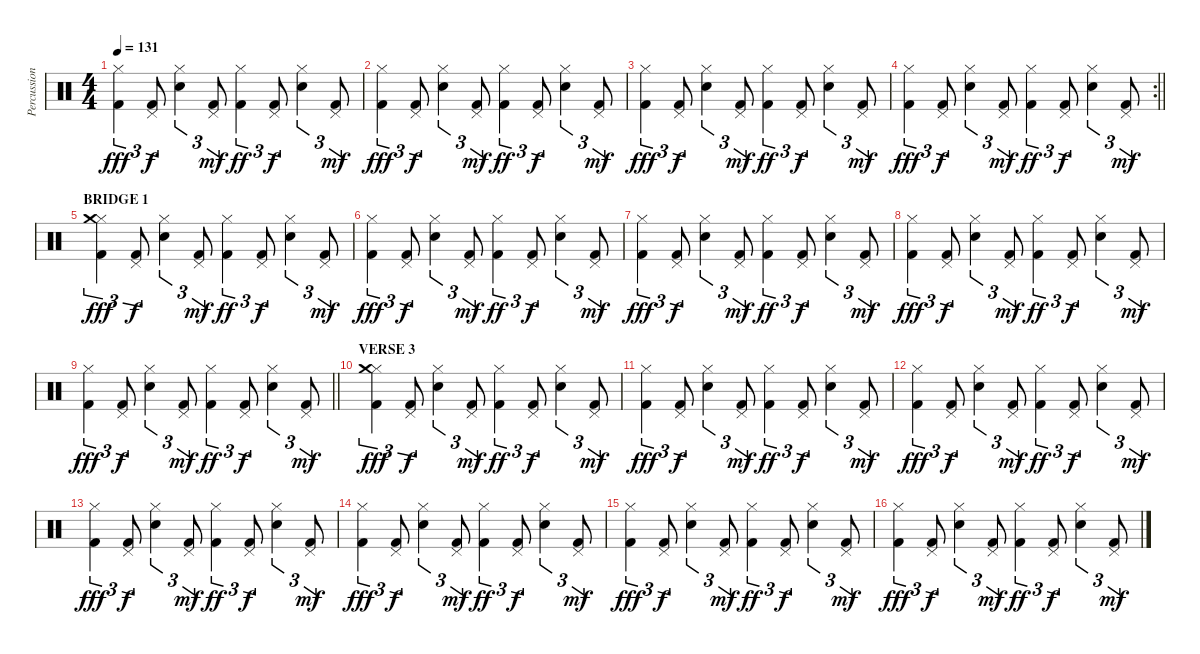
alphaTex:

\track ("Percussion" "Percussion") {instrument percussion}
\staff {score}
\articulation defaults
\ts (4 4)
\tempo 131
\clef neutral
\ks c
("Hi-Hat (closed)" "Kick (hit) 2").4{tu (3 2) dy fff} ("Pedal Hi-Hat (hit)" "Kick (hit) 2").8{tu (3 2) dy f} ("Hi-Hat (closed)" "Electric Snare (hit)").4{tu (3 2)} ("Pedal Hi-Hat (hit)" "Kick (hit) 2").8{tu (3 2) dy mf} ("Hi-Hat (closed)" "Kick (hit) 2").4{tu (3 2) dy ff} ("Pedal Hi-Hat (hit)" "Kick (hit) 2").8{tu (3 2) dy f} ("Hi-Hat (closed)" "Electric Snare (hit)").4{tu (3 2)} ("Pedal Hi-Hat (hit)" "Kick (hit) 2").8{tu (3 2) dy mf} |
("Hi-Hat (closed)" "Kick (hit) 2").4{tu (3 2) dy fff} ("Pedal Hi-Hat (hit)" "Kick (hit) 2").8{tu (3 2) dy f} ("Hi-Hat (closed)" "Electric Snare (hit)").4{tu (3 2)} ("Pedal Hi-Hat (hit)" "Kick (hit) 2").8{tu (3 2) dy mf} ("Hi-Hat (closed)" "Kick (hit) 2").4{tu (3 2) dy ff} ("Pedal Hi-Hat (hit)" "Kick (hit) 2").8{tu (3 2) dy f} ("Hi-Hat (closed)" "Electric Snare (hit)").4{tu (3 2)} ("Pedal Hi-Hat (hit)" "Kick (hit) 2").8{tu (3 2) dy mf} |
("Hi-Hat (closed)" "Kick (hit) 2").4{tu (3 2) dy fff} ("Pedal Hi-Hat (hit)" "Kick (hit) 2").8{tu (3 2) dy f} ("Hi-Hat (closed)" "Electric Snare (hit)").4{tu (3 2)} ("Pedal Hi-Hat (hit)" "Kick (hit) 2").8{tu (3 2) dy mf} ("Hi-Hat (closed)" "Kick (hit) 2").4{tu (3 2) dy ff} ("Pedal Hi-Hat (hit)" "Kick (hit) 2").8{tu (3 2) dy f} ("Hi-Hat (closed)" "Electric Snare (hit)").4{tu (3 2)} ("Pedal Hi-Hat (hit)" "Kick (hit) 2").8{tu (3 2) dy mf} |
\rc 2
\barLineRight lightlight
("Hi-Hat (closed)" "Kick (hit) 2").4{tu (3 2) dy fff} ("Pedal Hi-Hat (hit)" "Kick (hit) 2").8{tu (3 2) dy f} ("Hi-Hat (closed)" "Electric Snare (hit)").4{tu (3 2)} ("Pedal Hi-Hat (hit)" "Kick (hit) 2").8{tu (3 2) dy mf} ("Hi-Hat (closed)" "Kick (hit) 2").4{tu (3 2) dy ff} ("Pedal Hi-Hat (hit)" "Kick (hit) 2").8{tu (3 2) dy f} ("Hi-Hat (closed)" "Electric Snare (hit)").4{tu (3 2)} ("Pedal Hi-Hat (hit)" "Kick (hit) 2").8{tu (3 2) dy mf} |
\section ("" "BRIDGE 1")
("Hi-Hat (closed)" "Crash medium (hit)" "Kick (hit) 2").4{tu (3 2) dy fff} ("Pedal Hi-Hat (hit)" "Kick (hit) 2").8{tu (3 2) dy f} ("Hi-Hat (closed)" "Electric Snare (hit)").4{tu (3 2)} ("Pedal Hi-Hat (hit)" "Kick (hit) 2").8{tu (3 2) dy mf} ("Hi-Hat (closed)" "Kick (hit) 2").4{tu (3 2) dy ff} ("Pedal Hi-Hat (hit)" "Kick (hit) 2").8{tu (3 2) dy f} ("Hi-Hat (closed)" "Electric Snare (hit)").4{tu (3 2)} ("Pedal Hi-Hat (hit)" "Kick (hit) 2").8{tu (3 2) dy mf} |
("Hi-Hat (closed)" "Kick (hit) 2").4{tu (3 2) dy fff} ("Pedal Hi-Hat (hit)" "Kick (hit) 2").8{tu (3 2) dy f} ("Hi-Hat (closed)" "Electric Snare (hit)").4{tu (3 2)} ("Pedal Hi-Hat (hit)" "Kick (hit) 2").8{tu (3 2) dy mf} ("Hi-Hat (closed)" "Kick (hit) 2").4{tu (3 2) dy ff} ("Pedal Hi-Hat (hit)" "Kick (hit) 2").8{tu (3 2) dy f} ("Hi-Hat (closed)" "Electric Snare (hit)").4{tu (3 2)} ("Pedal Hi-Hat (hit)" "Kick (hit) 2").8{tu (3 2) dy mf} |
("Hi-Hat (closed)" "Kick (hit) 2").4{tu (3 2) dy fff} ("Pedal Hi-Hat (hit)" "Kick (hit) 2").8{tu (3 2) dy f} ("Hi-Hat (closed)" "Electric Snare (hit)").4{tu (3 2)} ("Pedal Hi-Hat (hit)" "Kick (hit) 2").8{tu (3 2) dy mf} ("Hi-Hat (closed)" "Kick (hit) 2").4{tu (3 2) dy ff} ("Pedal Hi-Hat (hit)" "Kick (hit) 2").8{tu (3 2) dy f} ("Hi-Hat (closed)" "Electric Snare (hit)").4{tu (3 2)} ("Pedal Hi-Hat (hit)" "Kick (hit) 2").8{tu (3 2) dy mf} |
("Hi-Hat (closed)" "Kick (hit) 2").4{tu (3 2) dy fff} ("Pedal Hi-Hat (hit)" "Kick (hit) 2").8{tu (3 2) dy f} ("Hi-Hat (closed)" "Electric Snare (hit)").4{tu (3 2)} ("Pedal Hi-Hat (hit)" "Kick (hit) 2").8{tu (3 2) dy mf} ("Hi-Hat (closed)" "Kick (hit) 2").4{tu (3 2) dy ff} ("Pedal Hi-Hat (hit)" "Kick (hit) 2").8{tu (3 2) dy f} ("Hi-Hat (closed)" "Electric Snare (hit)").4{tu (3 2)} ("Pedal Hi-Hat (hit)" "Kick (hit) 2").8{tu (3 2) dy mf} |
\barLineRight lightlight
("Hi-Hat (closed)" "Kick (hit) 2").4{tu (3 2) dy fff} ("Pedal Hi-Hat (hit)" "Kick (hit) 2").8{tu (3 2) dy f} ("Hi-Hat (closed)" "Electric Snare (hit)").4{tu (3 2)} ("Pedal Hi-Hat (hit)" "Kick (hit) 2").8{tu (3 2) dy mf} ("Hi-Hat (closed)" "Kick (hit) 2").4{tu (3 2) dy ff} ("Pedal Hi-Hat (hit)" "Kick (hit) 2").8{tu (3 2) dy f} ("Hi-Hat (closed)" "Electric Snare (hit)").4{tu (3 2)} ("Pedal Hi-Hat (hit)" "Kick (hit) 2").8{tu (3 2) dy mf} |
\section ("" "VERSE 3")
("Hi-Hat (closed)" "Crash medium (hit)" "Kick (hit) 2").4{tu (3 2) dy fff} ("Pedal Hi-Hat (hit)" "Kick (hit) 2").8{tu (3 2) dy f} ("Hi-Hat (closed)" "Electric Snare (hit)").4{tu (3 2)} ("Pedal Hi-Hat (hit)" "Kick (hit) 2").8{tu (3 2) dy mf} ("Hi-Hat (closed)" "Kick (hit) 2").4{tu (3 2) dy ff} ("Pedal Hi-Hat (hit)" "Kick (hit) 2").8{tu (3 2) dy f} ("Hi-Hat (closed)" "Electric Snare (hit)").4{tu (3 2)} ("Pedal Hi-Hat (hit)" "Kick (hit) 2").8{tu (3 2) dy mf} |
("Hi-Hat (closed)" "Kick (hit) 2").4{tu (3 2) dy fff} ("Pedal Hi-Hat (hit)" "Kick (hit) 2").8{tu (3 2) dy f} ("Hi-Hat (closed)" "Electric Snare (hit)").4{tu (3 2)} ("Pedal Hi-Hat (hit)" "Kick (hit) 2").8{tu (3 2) dy mf} ("Hi-Hat (closed)" "Kick (hit) 2").4{tu (3 2) dy ff} ("Pedal Hi-Hat (hit)" "Kick (hit) 2").8{tu (3 2) dy f} ("Hi-Hat (closed)" "Electric Snare (hit)").4{tu (3 2)} ("Pedal Hi-Hat (hit)" "Kick (hit) 2").8{tu (3 2) dy mf} |
("Hi-Hat (closed)" "Kick (hit) 2").4{tu (3 2) dy fff} ("Pedal Hi-Hat (hit)" "Kick (hit) 2").8{tu (3 2) dy f} ("Hi-Hat (closed)" "Electric Snare (hit)").4{tu (3 2)} ("Pedal Hi-Hat (hit)" "Kick (hit) 2").8{tu (3 2) dy mf} ("Hi-Hat (closed)" "Kick (hit) 2").4{tu (3 2) dy ff} ("Pedal Hi-Hat (hit)" "Kick (hit) 2").8{tu (3 2) dy f} ("Hi-Hat (closed)" "Electric Snare (hit)").4{tu (3 2)} ("Pedal Hi-Hat (hit)" "Kick (hit) 2").8{tu (3 2) dy mf} |
("Hi-Hat (closed)" "Kick (hit) 2").4{tu (3 2) dy fff} ("Pedal Hi-Hat (hit)" "Kick (hit) 2").8{tu (3 2) dy f} ("Hi-Hat (closed)" "Electric Snare (hit)").4{tu (3 2)} ("Pedal Hi-Hat (hit)" "Kick (hit) 2").8{tu (3 2) dy mf} ("Hi-Hat (closed)" "Kick (hit) 2").4{tu (3 2) dy ff} ("Pedal Hi-Hat (hit)" "Kick (hit) 2").8{tu (3 2) dy f} ("Hi-Hat (closed)" "Electric Snare (hit)").4{tu (3 2)} ("Pedal Hi-Hat (hit)" "Kick (hit) 2").8{tu (3 2) dy mf} |
("Hi-Hat (closed)" "Kick (hit) 2").4{tu (3 2) dy fff} ("Pedal Hi-Hat (hit)" "Kick (hit) 2").8{tu (3 2) dy f} ("Hi-Hat (closed)" "Electric Snare (hit)").4{tu (3 2)} ("Pedal Hi-Hat (hit)" "Kick (hit) 2").8{tu (3 2) dy mf} ("Hi-Hat (closed)" "Kick (hit) 2").4{tu (3 2) dy ff} ("Pedal Hi-Hat (hit)" "Kick (hit) 2").8{tu (3 2) dy f} ("Hi-Hat (closed)" "Electric Snare (hit)").4{tu (3 2)} ("Pedal Hi-Hat (hit)" "Kick (hit) 2").8{tu (3 2) dy mf} |
("Hi-Hat (closed)" "Kick (hit) 2").4{tu (3 2) dy fff} ("Pedal Hi-Hat (hit)" "Kick (hit) 2").8{tu (3 2) dy f} ("Hi-Hat (closed)" "Electric Snare (hit)").4{tu (3 2)} ("Pedal Hi-Hat (hit)" "Kick (hit) 2").8{tu (3 2) dy mf} ("Hi-Hat (closed)" "Kick (hit) 2").4{tu (3 2) dy ff} ("Pedal Hi-Hat (hit)" "Kick (hit) 2").8{tu (3 2) dy f} ("Hi-Hat (closed)" "Electric Snare (hit)").4{tu (3 2)} ("Pedal Hi-Hat (hit)" "Kick (hit) 2").8{tu (3 2) dy mf} |
("Hi-Hat (closed)" "Kick (hit) 2").4{tu (3 2) dy fff} ("Pedal Hi-Hat (hit)" "Kick (hit) 2").8{tu (3 2) dy f} ("Hi-Hat (closed)" "Electric Snare (hit)").4{tu (3 2)} ("Pedal Hi-Hat (hit)" "Kick (hit) 2").8{tu (3 2) dy mf} ("Hi-Hat (closed)" "Kick (hit) 2").4{tu (3 2) dy ff} ("Pedal Hi-Hat (hit)" "Kick (hit) 2").8{tu (3 2) dy f} ("Hi-Hat (closed)" "Electric Snare (hit)").4{tu (3 2)} ("Pedal Hi-Hat (hit)" "Kick (hit) 2").8{tu (3 2) dy mf}
